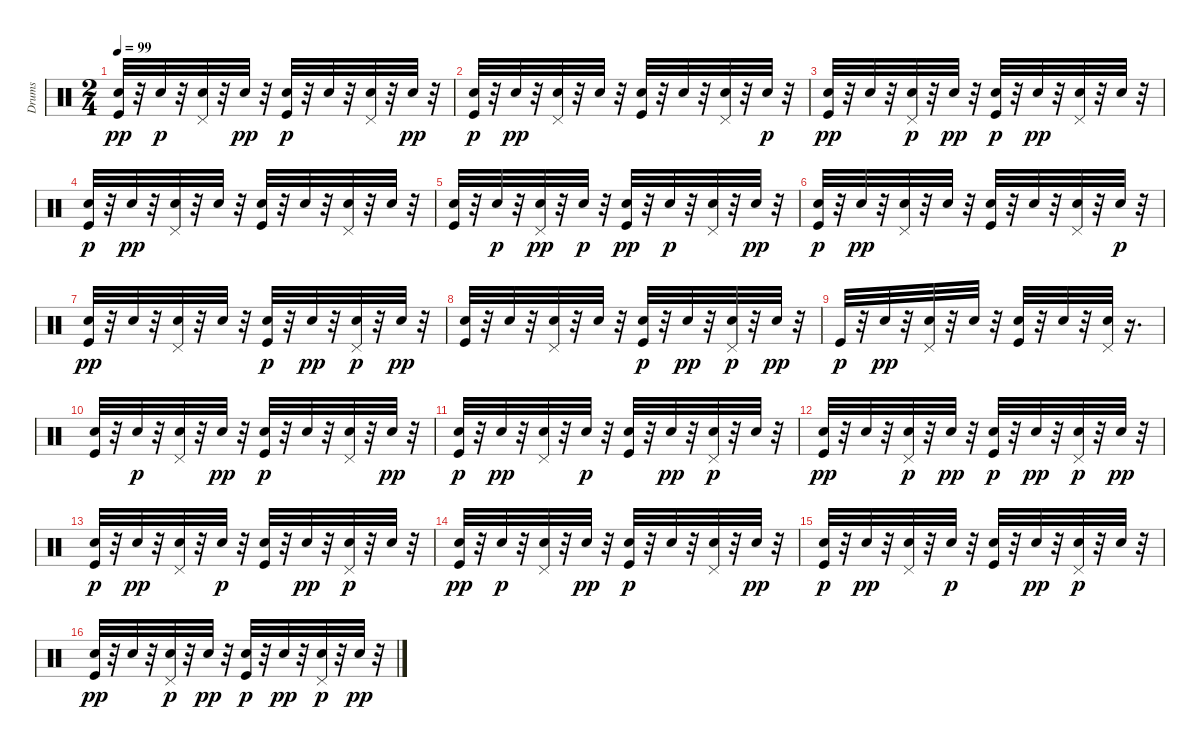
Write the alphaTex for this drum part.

\track ("Drums" "Drums") {instrument percussion}
\staff {score}
\articulation defaults
\ts (2 4)
\tempo 99
\clef neutral
\ks c
("Kick (hit)" "Hand Clap (hit)").32{dy pp} r.32 "Snare (hit) 2".32{dy p} r.32 ("Pedal Hi-Hat (hit)" "Snare (hit) 2").32 r.32 "Snare (hit) 2".32{dy pp} r.32 ("Hand Clap (hit)" "Kick (hit)").32{dy p} r.32 "Snare (hit) 2".32 r.32 ("Pedal Hi-Hat (hit)" "Snare (hit) 2").32 r.32 "Snare (hit) 2".32{dy pp} r.32 |
("Hand Clap (hit)" "Kick (hit)").32{dy p} r.32 "Snare (hit) 2".32{dy pp} r.32 ("Pedal Hi-Hat (hit)" "Snare (hit) 2").32 r.32 "Hand Clap (hit)".32 r.32 ("Kick (hit)" "Hand Clap (hit)").32 r.32 "Snare (hit) 2".32 r.32 ("Pedal Hi-Hat (hit)" "Hand Clap (hit)").32 r.32 "Snare (hit) 2".32{dy p} r.32 |
("Kick (hit)" "Hand Clap (hit)").32{dy pp} r.32 "Snare (hit) 2".32 r.32 ("Pedal Hi-Hat (hit)" "Snare (hit) 2").32{dy p} r.32 "Hand Clap (hit)".32{dy pp} r.32 ("Hand Clap (hit)" "Kick (hit)").32{dy p} r.32 "Snare (hit) 2".32{dy pp} r.32 ("Pedal Hi-Hat (hit)" "Hand Clap (hit)").32 r.32 "Snare (hit) 2".32 r.32 |
("Hand Clap (hit)" "Kick (hit)").32{dy p} r.32 "Snare (hit) 2".32{dy pp} r.32 ("Pedal Hi-Hat (hit)" "Snare (hit) 2").32 r.32 "Snare (hit) 2".32 r.32 ("Kick (hit)" "Hand Clap (hit)").32 r.32 "Snare (hit) 2".32 r.32 ("Hand Clap (hit)" "Pedal Hi-Hat (hit)").32 r.32 "Snare (hit) 2".32 r.32 |
("Kick (hit)" "Hand Clap (hit)").32 r.32 "Snare (hit) 2".32{dy p} r.32 ("Pedal Hi-Hat (hit)" "Snare (hit) 2").32{dy pp} r.32 "Hand Clap (hit)".32{dy p} r.32 ("Kick (hit)" "Snare (hit) 2").32{dy pp} r.32 "Snare (hit) 2".32{dy p} r.32 ("Pedal Hi-Hat (hit)" "Snare (hit) 2").32 r.32 "Snare (hit) 2".32{dy pp} r.32 |
("Hand Clap (hit)" "Kick (hit)").32{dy p} r.32 "Snare (hit) 2".32{dy pp} r.32 ("Pedal Hi-Hat (hit)" "Snare (hit) 2").32 r.32 "Hand Clap (hit)".32 r.32 ("Kick (hit)" "Hand Clap (hit)").32 r.32 "Snare (hit) 2".32 r.32 ("Pedal Hi-Hat (hit)" "Hand Clap (hit)").32 r.32 "Snare (hit) 2".32{dy p} r.32 |
("Kick (hit)" "Hand Clap (hit)").32{dy pp} r.32 "Snare (hit) 2".32 r.32 ("Pedal Hi-Hat (hit)" "Snare (hit) 2").32 r.32 "Hand Clap (hit)".32 r.32 ("Kick (hit)" "Snare (hit) 2").32{dy p} r.32 "Snare (hit) 2".32{dy pp} r.32 ("Pedal Hi-Hat (hit)" "Snare (hit) 2").32{dy p} r.32 "Snare (hit) 2".32{dy pp} r.32 |
("Kick (hit)" "Hand Clap (hit)").32 r.32 "Snare (hit) 2".32 r.32 ("Pedal Hi-Hat (hit)" "Snare (hit) 2").32 r.32 "Hand Clap (hit)".32 r.32 ("Kick (hit)" "Snare (hit) 2").32{dy p} r.32 "Snare (hit) 2".32{dy pp} r.32 ("Pedal Hi-Hat (hit)" "Snare (hit) 2").32{dy p} r.32 "Snare (hit) 2".32{dy pp} r.32 |
"Kick (hit)".32{dy p} r.32 "Snare (hit) 2".32{dy pp} r.32 ("Pedal Hi-Hat (hit)" "Snare (hit) 2").32 r.32 "Hand Clap (hit)".32 r.32 ("Kick (hit)" "Hand Clap (hit)").32 r.32 "Snare (hit) 2".32 r.32 ("Hand Clap (hit)" "Pedal Hi-Hat (hit)").32 r.16{d} |
("Kick (hit)" "Hand Clap (hit)").32 r.32 "Snare (hit) 2".32{dy p} r.32 ("Pedal Hi-Hat (hit)" "Snare (hit) 2").32 r.32 "Snare (hit) 2".32{dy pp} r.32 ("Hand Clap (hit)" "Kick (hit)").32{dy p} r.32 "Snare (hit) 2".32 r.32 ("Pedal Hi-Hat (hit)" "Snare (hit) 2").32 r.32 "Hand Clap (hit)".32{dy pp} r.32 |
("Hand Clap (hit)" "Kick (hit)").32{dy p} r.32 "Snare (hit) 2".32{dy pp} r.32 ("Pedal Hi-Hat (hit)" "Snare (hit) 2").32 r.32 "Snare (hit) 2".32{dy p} r.32 ("Hand Clap (hit)" "Kick (hit)").32 r.32 "Hand Clap (hit)".32{dy pp} r.32 ("Pedal Hi-Hat (hit)" "Snare (hit) 2").32{dy p} r.32 "Snare (hit) 2".32 r.32 |
("Kick (hit)" "Hand Clap (hit)").32{dy pp} r.32 "Snare (hit) 2".32 r.32 ("Pedal Hi-Hat (hit)" "Snare (hit) 2").32{dy p} r.32 "Snare (hit) 2".32{dy pp} r.32 ("Hand Clap (hit)" "Kick (hit)").32{dy p} r.32 "Snare (hit) 2".32{dy pp} r.32 ("Pedal Hi-Hat (hit)" "Snare (hit) 2").32{dy p} r.32 "Snare (hit) 2".32{dy pp} r.32 |
("Hand Clap (hit)" "Kick (hit)").32{dy p} r.32 "Snare (hit) 2".32{dy pp} r.32 ("Pedal Hi-Hat (hit)" "Snare (hit) 2").32 r.32 "Snare (hit) 2".32{dy p} r.32 ("Hand Clap (hit)" "Kick (hit)").32 r.32 "Hand Clap (hit)".32{dy pp} r.32 ("Pedal Hi-Hat (hit)" "Snare (hit) 2").32{dy p} r.32 "Snare (hit) 2".32 r.32 |
("Kick (hit)" "Hand Clap (hit)").32{dy pp} r.32 "Snare (hit) 2".32{dy p} r.32 ("Pedal Hi-Hat (hit)" "Snare (hit) 2").32 r.32 "Snare (hit) 2".32{dy pp} r.32 ("Hand Clap (hit)" "Kick (hit)").32{dy p} r.32 "Snare (hit) 2".32 r.32 ("Pedal Hi-Hat (hit)" "Snare (hit) 2").32 r.32 "Hand Clap (hit)".32{dy pp} r.32 |
("Hand Clap (hit)" "Kick (hit)").32{dy p} r.32 "Snare (hit) 2".32{dy pp} r.32 ("Pedal Hi-Hat (hit)" "Snare (hit) 2").32 r.32 "Snare (hit) 2".32{dy p} r.32 ("Hand Clap (hit)" "Kick (hit)").32 r.32 "Hand Clap (hit)".32{dy pp} r.32 ("Pedal Hi-Hat (hit)" "Snare (hit) 2").32{dy p} r.32 "Snare (hit) 2".32 r.32 |
("Kick (hit)" "Hand Clap (hit)").32{dy pp} r.32 "Snare (hit) 2".32 r.32 ("Pedal Hi-Hat (hit)" "Snare (hit) 2").32{dy p} r.32 "Snare (hit) 2".32{dy pp} r.32 ("Hand Clap (hit)" "Kick (hit)").32{dy p} r.32 "Snare (hit) 2".32{dy pp} r.32 ("Pedal Hi-Hat (hit)" "Snare (hit) 2").32{dy p} r.32 "Snare (hit) 2".32{dy pp} r.32
